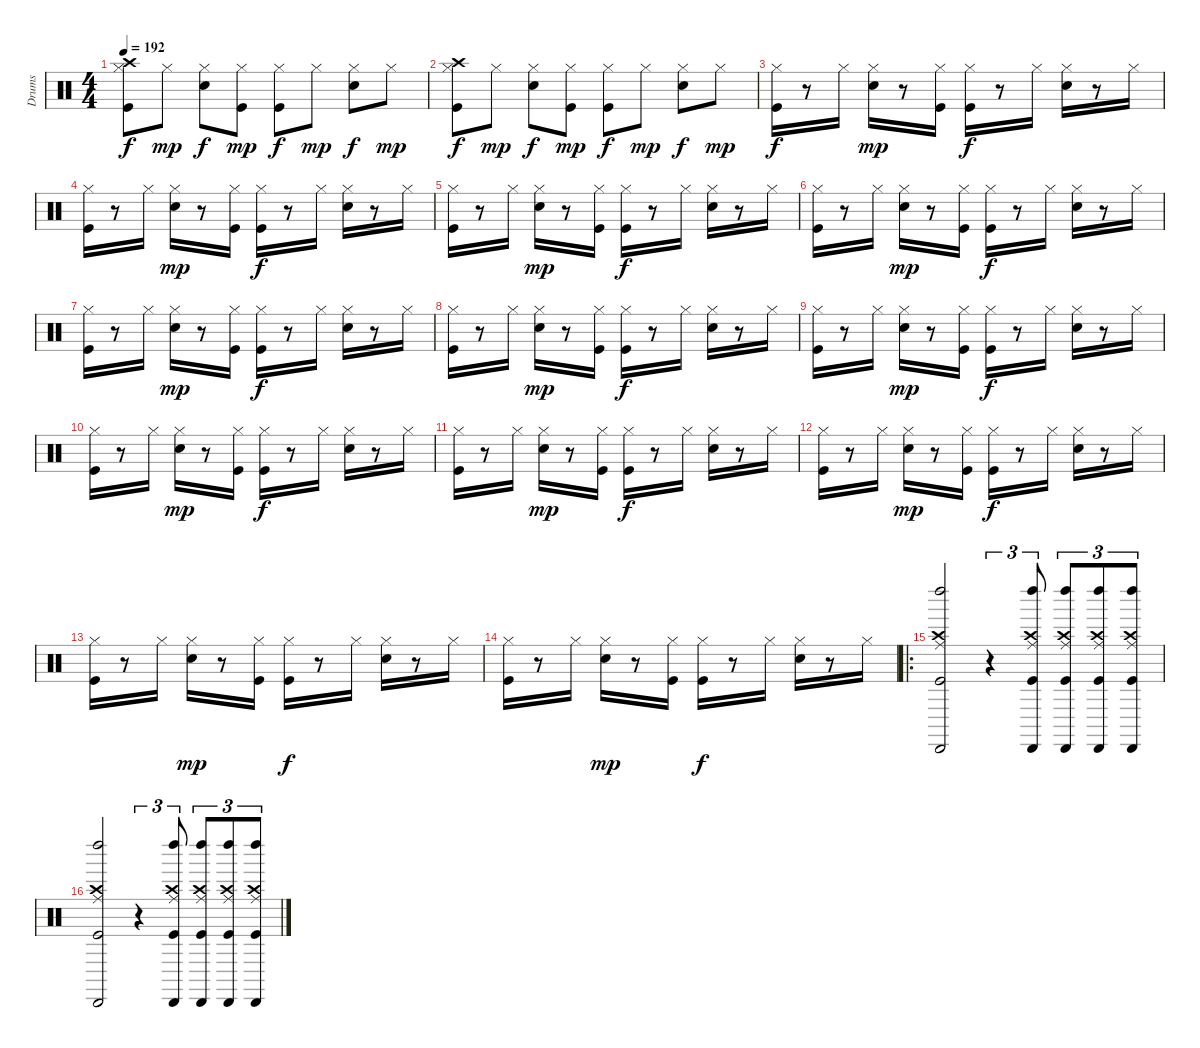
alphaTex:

\track ("Drums" "Drums") {instrument percussion}
\staff {score}
\articulation defaults
\ts (4 4)
\tempo 192
\clef neutral
\ks c
("Kick (hit)" "Hi-Hat (closed)" "Crash high (hit)").8{dy f} "Hi-Hat (closed)".8{dy mp} ("Snare (hit) 2" "Hi-Hat (closed)").8{dy f} ("Kick (hit)" "Hi-Hat (closed)").8{dy mp} ("Kick (hit)" "Hi-Hat (closed)").8{dy f} "Hi-Hat (closed)".8{dy mp} ("Snare (hit) 2" "Hi-Hat (closed)").8{dy f} "Hi-Hat (closed)".8{dy mp} |
("Kick (hit)" "Hi-Hat (closed)" "Crash high (hit)").8{dy f} "Hi-Hat (closed)".8{dy mp} ("Snare (hit) 2" "Hi-Hat (closed)").8{dy f} ("Kick (hit)" "Hi-Hat (closed)").8{dy mp} ("Kick (hit)" "Hi-Hat (closed)").8{dy f} "Hi-Hat (closed)".8{dy mp} ("Snare (hit) 2" "Hi-Hat (closed)").8{dy f} "Hi-Hat (closed)".8{dy mp} |
("Kick (hit)" "Hi-Hat (closed)").16{dy f} r.8 "Hi-Hat (closed)".16 ("Snare (hit) 2" "Hi-Hat (closed)").16{dy mp} r.8 ("Kick (hit)" "Hi-Hat (closed)").16 ("Kick (hit)" "Hi-Hat (closed)").16{dy f} r.8 "Hi-Hat (closed)".16 ("Snare (hit) 2" "Hi-Hat (closed)").16 r.8 "Hi-Hat (closed)".16 |
("Kick (hit)" "Hi-Hat (closed)").16 r.8 "Hi-Hat (closed)".16 ("Snare (hit) 2" "Hi-Hat (closed)").16{dy mp} r.8 ("Kick (hit)" "Hi-Hat (closed)").16 ("Kick (hit)" "Hi-Hat (closed)").16{dy f} r.8 "Hi-Hat (closed)".16 ("Snare (hit) 2" "Hi-Hat (closed)").16 r.8 "Hi-Hat (closed)".16 |
("Kick (hit)" "Hi-Hat (closed)").16 r.8 "Hi-Hat (closed)".16 ("Snare (hit) 2" "Hi-Hat (closed)").16{dy mp} r.8 ("Kick (hit)" "Hi-Hat (closed)").16 ("Kick (hit)" "Hi-Hat (closed)").16{dy f} r.8 "Hi-Hat (closed)".16 ("Snare (hit) 2" "Hi-Hat (closed)").16 r.8 "Hi-Hat (closed)".16 |
("Kick (hit)" "Hi-Hat (closed)").16 r.8 "Hi-Hat (closed)".16 ("Snare (hit) 2" "Hi-Hat (closed)").16{dy mp} r.8 ("Kick (hit)" "Hi-Hat (closed)").16 ("Kick (hit)" "Hi-Hat (closed)").16{dy f} r.8 "Hi-Hat (closed)".16 ("Snare (hit) 2" "Hi-Hat (closed)").16 r.8 "Hi-Hat (closed)".16 |
("Kick (hit)" "Hi-Hat (closed)").16 r.8 "Hi-Hat (closed)".16 ("Snare (hit) 2" "Hi-Hat (closed)").16{dy mp} r.8 ("Kick (hit)" "Hi-Hat (closed)").16 ("Kick (hit)" "Hi-Hat (closed)").16{dy f} r.8 "Hi-Hat (closed)".16 ("Snare (hit) 2" "Hi-Hat (closed)").16 r.8 "Hi-Hat (closed)".16 |
("Kick (hit)" "Hi-Hat (closed)").16 r.8 "Hi-Hat (closed)".16 ("Snare (hit) 2" "Hi-Hat (closed)").16{dy mp} r.8 ("Kick (hit)" "Hi-Hat (closed)").16 ("Kick (hit)" "Hi-Hat (closed)").16{dy f} r.8 "Hi-Hat (closed)".16 ("Snare (hit) 2" "Hi-Hat (closed)").16 r.8 "Hi-Hat (closed)".16 |
("Kick (hit)" "Hi-Hat (closed)").16 r.8 "Hi-Hat (closed)".16 ("Snare (hit) 2" "Hi-Hat (closed)").16{dy mp} r.8 ("Kick (hit)" "Hi-Hat (closed)").16 ("Kick (hit)" "Hi-Hat (closed)").16{dy f} r.8 "Hi-Hat (closed)".16 ("Snare (hit) 2" "Hi-Hat (closed)").16 r.8 "Hi-Hat (closed)".16 |
("Kick (hit)" "Hi-Hat (closed)").16 r.8 "Hi-Hat (closed)".16 ("Snare (hit) 2" "Hi-Hat (closed)").16{dy mp} r.8 ("Kick (hit)" "Hi-Hat (closed)").16 ("Kick (hit)" "Hi-Hat (closed)").16{dy f} r.8 "Hi-Hat (closed)".16 ("Snare (hit) 2" "Hi-Hat (closed)").16 r.8 "Hi-Hat (closed)".16 |
("Kick (hit)" "Hi-Hat (closed)").16 r.8 "Hi-Hat (closed)".16 ("Snare (hit) 2" "Hi-Hat (closed)").16{dy mp} r.8 ("Kick (hit)" "Hi-Hat (closed)").16 ("Kick (hit)" "Hi-Hat (closed)").16{dy f} r.8 "Hi-Hat (closed)".16 ("Snare (hit) 2" "Hi-Hat (closed)").16 r.8 "Hi-Hat (closed)".16 |
("Kick (hit)" "Hi-Hat (closed)").16 r.8 "Hi-Hat (closed)".16 ("Snare (hit) 2" "Hi-Hat (closed)").16{dy mp} r.8 ("Kick (hit)" "Hi-Hat (closed)").16 ("Kick (hit)" "Hi-Hat (closed)").16{dy f} r.8 "Hi-Hat (closed)".16 ("Snare (hit) 2" "Hi-Hat (closed)").16 r.8 "Hi-Hat (closed)".16 |
("Kick (hit)" "Hi-Hat (closed)").16 r.8 "Hi-Hat (closed)".16 ("Snare (hit) 2" "Hi-Hat (closed)").16{dy mp} r.8 ("Kick (hit)" "Hi-Hat (closed)").16 ("Kick (hit)" "Hi-Hat (closed)").16{dy f} r.8 "Hi-Hat (closed)".16 ("Snare (hit) 2" "Hi-Hat (closed)").16 r.8 "Hi-Hat (closed)".16 |
("Kick (hit)" "Hi-Hat (closed)").16 r.8 "Hi-Hat (closed)".16 ("Snare (hit) 2" "Hi-Hat (closed)").16{dy mp} r.8 ("Kick (hit)" "Hi-Hat (closed)").16 ("Kick (hit)" "Hi-Hat (closed)").16{dy f} r.8 "Hi-Hat (closed)".16 ("Snare (hit) 2" "Hi-Hat (closed)").16 r.8 "Hi-Hat (closed)".16 |
\ro
("Kick (hit)" "Ride (middle)" "Crash high (hit)" "Left Maraca (hit)" "Cabasa (hit)").2 r.4{tu (3 2)} ("Kick (hit)" "Ride (middle)" "Crash high (hit)" "Left Maraca (hit)" "Cabasa (hit)").8{tu (3 2)} ("Kick (hit)" "Ride (middle)" "Crash high (hit)" "Left Maraca (hit)" "Cabasa (hit)").8{tu (3 2)} ("Kick (hit)" "Ride (middle)" "Crash high (hit)" "Left Maraca (hit)" "Cabasa (hit)").8{tu (3 2)} ("Kick (hit)" "Ride (middle)" "Crash high (hit)" "Left Maraca (hit)" "Cabasa (hit)").8{tu (3 2)} |
("Kick (hit)" "Ride (middle)" "Crash high (hit)" "Left Maraca (hit)" "Cabasa (hit)").2 r.4{tu (3 2)} ("Kick (hit)" "Ride (middle)" "Crash high (hit)" "Left Maraca (hit)" "Cabasa (hit)").8{tu (3 2)} ("Kick (hit)" "Ride (middle)" "Crash high (hit)" "Left Maraca (hit)" "Cabasa (hit)").8{tu (3 2)} ("Kick (hit)" "Ride (middle)" "Crash high (hit)" "Left Maraca (hit)" "Cabasa (hit)").8{tu (3 2)} ("Kick (hit)" "Ride (middle)" "Crash high (hit)" "Left Maraca (hit)" "Cabasa (hit)").8{tu (3 2)}
